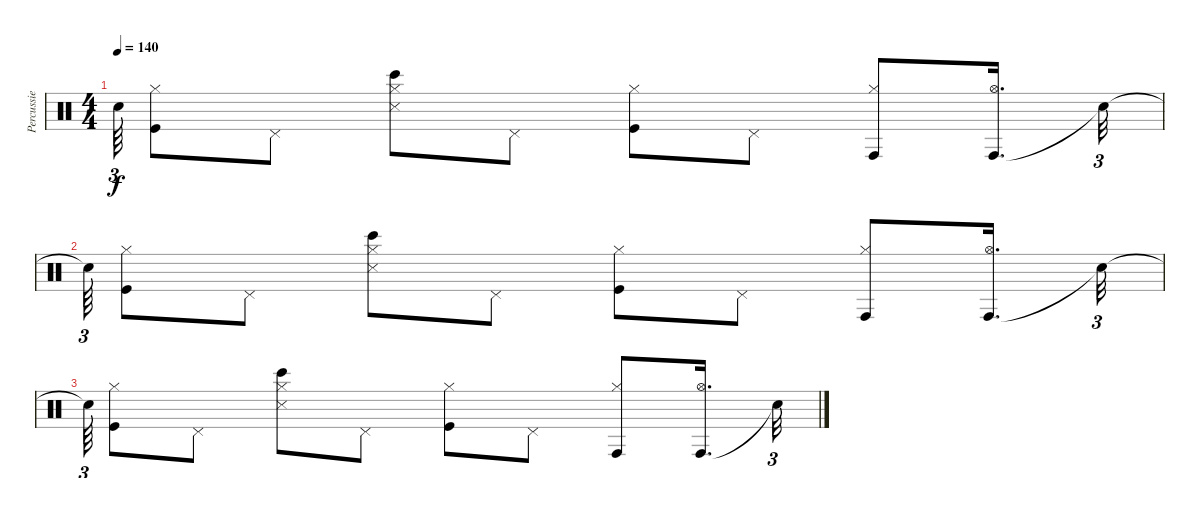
\track ("Percussie" "Percussie") {instrument percussion}
\staff {score}
\articulation defaults
\ts (4 4)
\tempo 140
\clef neutral
\ks c "Snare (hit)"{t}.64{tu (3 2) dy f}
("Kick (hit)" "Hi-Hat (closed)").8 "Pedal Hi-Hat (hit)".8 ("Bongo High (hit)" "Snare (side stick) 3" "Hi-Hat (closed)").8 "Pedal Hi-Hat (hit)".8 ("Kick (hit)" "Hi-Hat (closed)").8 "Pedal Hi-Hat (hit)".8 ("Conga high (hit)" "Hi-Hat (closed)").8 ("Conga high (hit)" "Hi-Hat (open)").16{d} "Snare (hit)"{t}.32{tu (3 2)} |
"Snare (hit)"{t}.64{tu (3 2)} ("Kick (hit)" "Hi-Hat (closed)").8 "Pedal Hi-Hat (hit)".8 ("Bongo High (hit)" "Snare (side stick) 3" "Hi-Hat (closed)").8 "Pedal Hi-Hat (hit)".8 ("Kick (hit)" "Hi-Hat (closed)").8 "Pedal Hi-Hat (hit)".8 ("Conga high (hit)" "Hi-Hat (closed)").8 ("Conga high (hit)" "Hi-Hat (open)").16{d} "Snare (hit)"{t}.32{tu (3 2)} |
"Snare (hit)"{t}.64{tu (3 2)} ("Kick (hit)" "Hi-Hat (closed)").8 "Pedal Hi-Hat (hit)".8 ("Bongo High (hit)" "Snare (side stick) 3" "Hi-Hat (closed)").8 "Pedal Hi-Hat (hit)".8 ("Kick (hit)" "Hi-Hat (closed)").8 "Pedal Hi-Hat (hit)".8 ("Conga high (hit)" "Hi-Hat (closed)").8 ("Conga high (hit)" "Hi-Hat (open)").16{d} "Snare (hit)"{t}.32{tu (3 2)}
